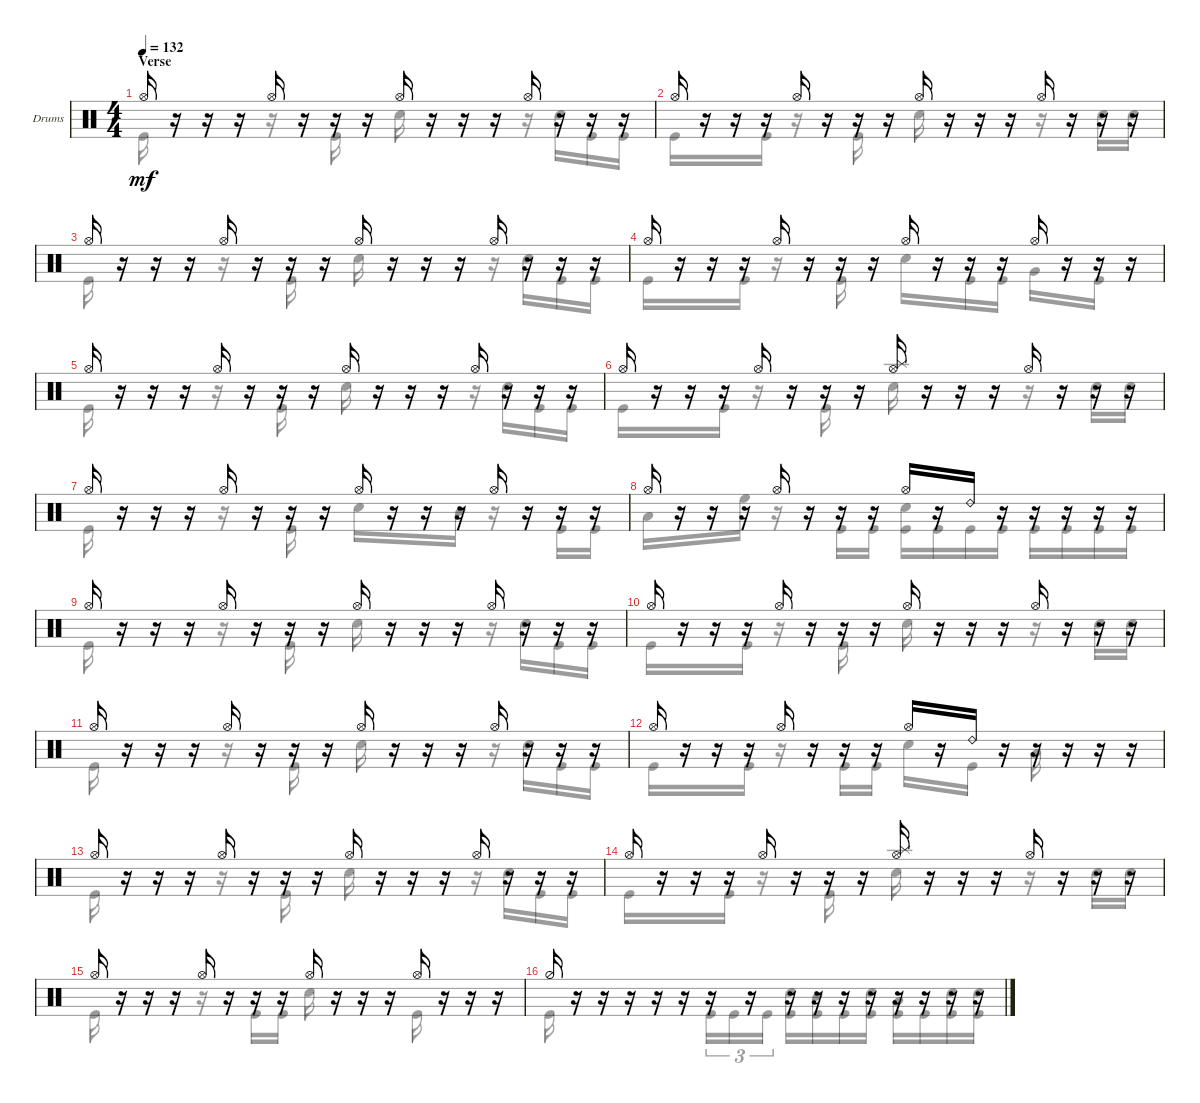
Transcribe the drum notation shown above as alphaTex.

\defaultSystemsLayout 4
\bracketExtendMode groupsimilarinstruments
\firstSystemTrackNameOrientation horizontal
\otherSystemsTrackNameOrientation horizontal
\track ("Drumkit" "Drums") {instrument percussion}
\staff {score}
\articulation defaults
\voice
\ts (4 4)
\section ("" "Verse")
\tempo 132
\clef neutral
\scale
0.333333
\ks c "Hi-Hat (open)".16{dy mf}
r.16 r.16 r.16 "Hi-Hat (open)".16 r.16 r.16 r.16 "Hi-Hat (open)".16 r.16 r.16 r.16 "Hi-Hat (open)".16 r.16 r.16 r.16 |
\scale
0.333333 "Hi-Hat (open)".16 r.16 r.16 r.16 "Hi-Hat (open)".16 r.16 r.16 r.16 "Hi-Hat (open)".16 r.16 r.16 r.16 "Hi-Hat (open)".16 r.16 r.16 r.16 |
\scale
0.333333 "Hi-Hat (open)".16 r.16 r.16 r.16 "Hi-Hat (open)".16 r.16 r.16 r.16 "Hi-Hat (open)".16 r.16 r.16 r.16 "Hi-Hat (open)".16 r.16 r.16 r.16 |
"Hi-Hat (open)".16 r.16 r.16 r.16 "Hi-Hat (open)".16 r.16 r.16 r.16 "Hi-Hat (open)".16 r.16 r.16 r.16 "Hi-Hat (open)".16 r.16 r.16 r.16 |
"Hi-Hat (open)".16 r.16 r.16 r.16 "Hi-Hat (open)".16 r.16 r.16 r.16 "Hi-Hat (open)".16 r.16 r.16 r.16 "Hi-Hat (open)".16 r.16 r.16 r.16 |
"Hi-Hat (open)".16 r.16 r.16 r.16 "Hi-Hat (open)".16 r.16 r.16 r.16 ("Hi-Hat (open)" "Splash (hit)").16 r.16 r.16 r.16 "Hi-Hat (open)".16 r.16 r.16 r.16 |
"Hi-Hat (open)".16 r.16 r.16 r.16 "Hi-Hat (open)".16 r.16 r.16 r.16 "Hi-Hat (open)".16 r.16 r.16 r.16 "Hi-Hat (open)".16 r.16 r.16 r.16 |
"Hi-Hat (open)".16 r.16 r.16 r.16 "Hi-Hat (open)".16 r.16 r.16 r.16 "Hi-Hat (open)".16 r.16 "Ride (bell) 2".16 r.16 r.16 r.16 r.16 r.16 |
"Hi-Hat (open)".16 r.16 r.16 r.16 "Hi-Hat (open)".16 r.16 r.16 r.16 "Hi-Hat (open)".16 r.16 r.16 r.16 "Hi-Hat (open)".16 r.16 r.16 r.16 |
"Hi-Hat (open)".16 r.16 r.16 r.16 "Hi-Hat (open)".16 r.16 r.16 r.16 "Hi-Hat (open)".16 r.16 r.16 r.16 "Hi-Hat (open)".16 r.16 r.16 r.16 |
"Hi-Hat (open)".16 r.16 r.16 r.16 "Hi-Hat (open)".16 r.16 r.16 r.16 "Hi-Hat (open)".16 r.16 r.16 r.16 "Hi-Hat (open)".16 r.16 r.16 r.16 |
"Hi-Hat (open)".16 r.16 r.16 r.16 "Hi-Hat (open)".16 r.16 r.16 r.16 "Hi-Hat (open)".16 r.16 "Ride (bell) 2".16 r.16 r.16 r.16 r.16 r.16 |
"Hi-Hat (open)".16 r.16 r.16 r.16 "Hi-Hat (open)".16 r.16 r.16 r.16 "Hi-Hat (open)".16 r.16 r.16 r.16 "Hi-Hat (open)".16 r.16 r.16 r.16 |
"Hi-Hat (open)".16 r.16 r.16 r.16 "Hi-Hat (open)".16 r.16 r.16 r.16 ("Hi-Hat (open)" "Splash (hit)").16 r.16 r.16 r.16 "Hi-Hat (open)".16 r.16 r.16 r.16 |
"Hi-Hat (open)".16 r.16 r.16 r.16 "Hi-Hat (open)".16 r.16 r.16 r.16 "Hi-Hat (open)".16 r.16 r.16 r.16 "Hi-Hat (open)".16 r.16 r.16 r.16 |
"Hi-Hat (half)".16 r.16 r.16 r.16 r.16 r.16 r.16 r.16 r.16 r.16 r.16 r.16 r.16 r.16 r.16 r.16
\voice
\clef neutral
\ottava regular
\simile none
\scale
0.333333
\ks c "Kick (hit)".16{dy mf}
r.16 r.16 r.16 r.16 r.16 "Kick (hit)".16 r.16 "Snare (hit) 2".16 r.16 r.16 r.16 r.16 "Snare (hit) 2".16 "Kick (hit)".16 "Kick (hit)".16 |
\scale
0.333333 "Kick (hit)".16 r.16 r.16 "Kick (hit)".16 r.16 r.16 "Kick (hit)".16 r.16 "Snare (hit) 2".16 r.16 r.16 r.16 r.16 r.16 "Snare (hit) 2".16 "Snare (hit) 2".16 |
\scale
0.333333 "Kick (hit)".16 r.16 r.16 r.16 r.16 r.16 "Kick (hit)".16 r.16 "Snare (hit) 2".16 r.16 r.16 r.16 r.16 "Snare (hit) 2".16 "Kick (hit)".16 "Kick (hit)".16 |
"Kick (hit)".16 r.16 r.16 "Kick (hit)".16 r.16 r.16 "Kick (hit)".16 r.16 "Snare (hit) 2".16 r.16 "Kick (hit)".16 "Kick (hit)".16 "Very Low Tom (hit)".16 r.16 "Kick (hit)".16 r.16 |
"Kick (hit)".16 r.16 r.16 r.16 r.16 r.16 "Kick (hit)".16 r.16 "Snare (hit) 2".16 r.16 r.16 r.16 r.16 "Snare (hit) 2".16 "Kick (hit)".16 "Kick (hit)".16 |
"Kick (hit)".16 r.16 r.16 "Kick (hit)".16 r.16 r.16 "Kick (hit)".16 r.16 "Snare (hit) 2".16 r.16 r.16 r.16 r.16 r.16 "Snare (hit) 2".16 "Snare (hit) 2".16 |
"Kick (hit)".16 r.16 r.16 r.16 r.16 r.16 "Kick (hit)".16 r.16 "Snare (hit) 2".16 r.16 r.16 "Mid Tom (hit)".16 r.16 r.16 "Kick (hit)".16 "Kick (hit)".16 |
"Low Tom (hit)".16 r.16 r.16 "High Floor Tom (hit)".16 r.16 r.16 "Kick (hit)".16 "Kick (hit)".16 ("Snare (hit) 2" "Kick (hit)").16 "Kick (hit)".16 "Kick (hit)".16 "Kick (hit)".16 "Kick (hit)".16 "Kick (hit)".16 "Kick (hit)".16 "Kick (hit)".16 |
"Kick (hit)".16 r.16 r.16 r.16 r.16 r.16 "Kick (hit)".16 r.16 "Snare (hit) 2".16 r.16 r.16 r.16 r.16 "Snare (hit) 2".16 "Kick (hit)".16 "Kick (hit)".16 |
"Kick (hit)".16 r.16 r.16 "Kick (hit)".16 r.16 r.16 "Kick (hit)".16 r.16 "Snare (hit) 2".16 r.16 r.16 r.16 r.16 r.16 "Snare (hit) 2".16 "Snare (hit) 2".16 |
"Kick (hit)".16 r.16 r.16 r.16 r.16 r.16 "Kick (hit)".16 r.16 "Snare (hit) 2".16 r.16 r.16 r.16 r.16 "Snare (hit) 2".16 "Kick (hit)".16 "Kick (hit)".16 |
"Kick (hit)".16 r.16 r.16 "Kick (hit)".16 r.16 r.16 "Kick (hit)".16 "Kick (hit)".16 "Snare (hit) 2".16 r.16 "Kick (hit)".16 r.16 "Low Tom (hit)".16 r.16 r.16 r.16 |
"Kick (hit)".16 r.16 r.16 r.16 r.16 r.16 "Kick (hit)".16 r.16 "Snare (hit) 2".16 r.16 r.16 r.16 r.16 "Snare (hit) 2".16 "Kick (hit)".16 "Kick (hit)".16 |
"Kick (hit)".16 r.16 r.16 "Kick (hit)".16 r.16 r.16 "Kick (hit)".16 r.16 "Snare (hit) 2".16 r.16 r.16 r.16 r.16 r.16 "Snare (hit) 2".16 "Snare (hit) 2".16 |
"Kick (hit)".16 r.16 r.16 r.16 r.16 r.16 "Kick (hit)".16 "Kick (hit)".16 "Snare (hit) 2".16 r.16 r.16 r.16 "Kick (hit)".16 r.16 r.16 r.16 |
"Kick (hit)".16 r.16 r.16 r.16 r.16 r.16 "Kick (hit)".16{tu (3 2)} "Kick (hit)".16{tu (3 2)} "Kick (hit)".16{tu (3 2)} ("Snare (hit) 2" "Kick (hit)").16 ("Kick (hit)" "Mid Tom (hit)").16 "Kick (hit)".16 ("Kick (hit)" "Snare (hit) 2").16 ("Low Tom (hit)" "Kick (hit)").16 "Kick (hit)".16 ("Kick (hit)" "Snare (hit) 2").16 ("Kick (hit)" "Snare (hit) 2").16
